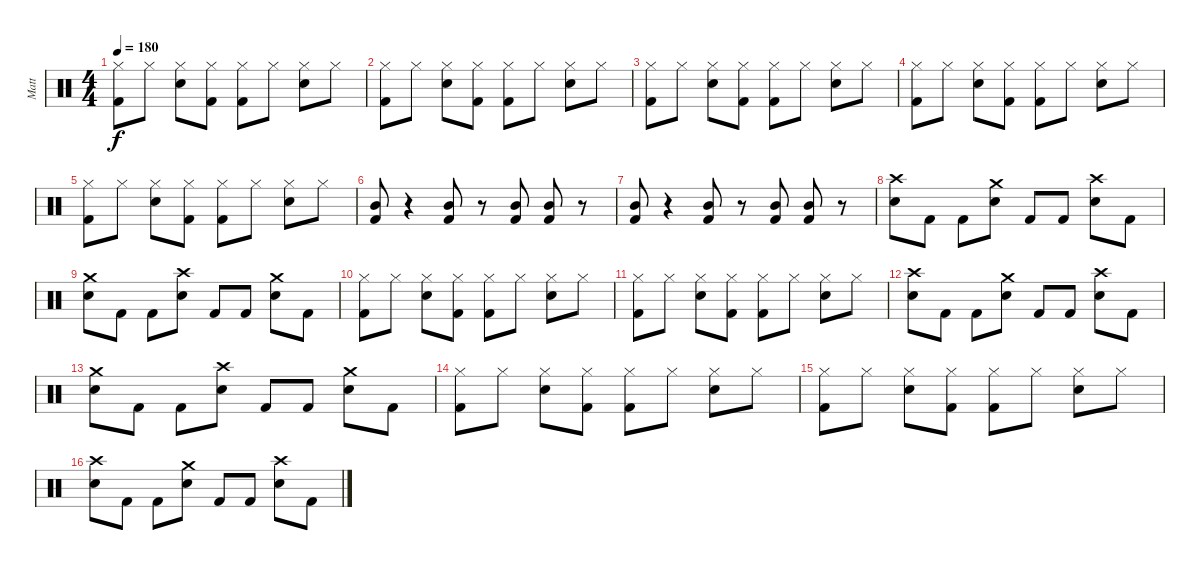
\track ("Matt" "Matt") {instrument percussion}
\staff {score}
\articulation defaults
\ts (4 4)
\tempo 180
\clef neutral
\ks c
("Hi-Hat (closed)" "Kick (hit) 2").8{dy f} "Hi-Hat (closed)".8 ("Hi-Hat (closed)" "Snare (hit) 2").8 ("Hi-Hat (closed)" "Kick (hit) 2").8 ("Hi-Hat (closed)" "Kick (hit) 2").8 "Hi-Hat (closed)".8 ("Hi-Hat (closed)" "Snare (hit) 2").8 "Hi-Hat (closed)".8 |
("Hi-Hat (closed)" "Kick (hit) 2").8 "Hi-Hat (closed)".8 ("Hi-Hat (closed)" "Snare (hit) 2").8 ("Hi-Hat (closed)" "Kick (hit) 2").8 ("Hi-Hat (closed)" "Kick (hit) 2").8 "Hi-Hat (closed)".8 ("Hi-Hat (closed)" "Snare (hit) 2").8 "Hi-Hat (closed)".8 |
("Hi-Hat (closed)" "Kick (hit) 2").8 "Hi-Hat (closed)".8 ("Hi-Hat (closed)" "Snare (hit) 2").8 ("Hi-Hat (closed)" "Kick (hit) 2").8 ("Hi-Hat (closed)" "Kick (hit) 2").8 "Hi-Hat (closed)".8 ("Hi-Hat (closed)" "Snare (hit) 2").8 "Hi-Hat (closed)".8 |
("Hi-Hat (closed)" "Kick (hit) 2").8 "Hi-Hat (closed)".8 ("Hi-Hat (closed)" "Snare (hit) 2").8 ("Hi-Hat (closed)" "Kick (hit) 2").8 ("Hi-Hat (closed)" "Kick (hit) 2").8 "Hi-Hat (closed)".8 ("Hi-Hat (closed)" "Snare (hit) 2").8 "Hi-Hat (closed)".8 |
("Hi-Hat (closed)" "Kick (hit) 2").8 "Hi-Hat (closed)".8 ("Hi-Hat (closed)" "Snare (hit) 2").8 ("Hi-Hat (closed)" "Kick (hit) 2").8 ("Hi-Hat (closed)" "Kick (hit) 2").8 "Hi-Hat (closed)".8 ("Hi-Hat (closed)" "Snare (hit) 2").8 "Hi-Hat (closed)".8 |
("Mid Tom (hit)" "Kick (hit) 2").8 r.4 ("Mid Tom (hit)" "Kick (hit) 2").8 r.8 ("Mid Tom (hit)" "Kick (hit) 2").8 ("Mid Tom (hit)" "Kick (hit) 2").8 r.8 |
("Mid Tom (hit)" "Kick (hit) 2").8 r.4 ("Mid Tom (hit)" "Kick (hit) 2").8 r.8 ("Mid Tom (hit)" "Kick (hit) 2").8 ("Mid Tom (hit)" "Kick (hit) 2").8 r.8 |
("Crash high (hit)" "Snare (hit) 2").8 "Kick (hit) 2".8 "Kick (hit) 2".8 ("Crash medium (hit)" "Snare (hit) 2").8 "Kick (hit) 2".8 "Kick (hit) 2".8 ("Crash high (hit)" "Snare (hit) 2").8 "Kick (hit) 2".8 |
("Crash medium (hit)" "Snare (hit) 2").8 "Kick (hit) 2".8 "Kick (hit) 2".8 ("Crash high (hit)" "Snare (hit) 2").8 "Kick (hit) 2".8 "Kick (hit) 2".8 ("Crash medium (hit)" "Snare (hit) 2").8 "Kick (hit) 2".8 |
("Hi-Hat (closed)" "Kick (hit) 2").8 "Hi-Hat (closed)".8 ("Hi-Hat (closed)" "Snare (hit) 2").8 ("Hi-Hat (closed)" "Kick (hit) 2").8 ("Hi-Hat (closed)" "Kick (hit) 2").8 "Hi-Hat (closed)".8 ("Hi-Hat (closed)" "Snare (hit) 2").8 "Hi-Hat (closed)".8 |
("Hi-Hat (closed)" "Kick (hit) 2").8 "Hi-Hat (closed)".8 ("Hi-Hat (closed)" "Snare (hit) 2").8 ("Hi-Hat (closed)" "Kick (hit) 2").8 ("Hi-Hat (closed)" "Kick (hit) 2").8 "Hi-Hat (closed)".8 ("Hi-Hat (closed)" "Snare (hit) 2").8 "Hi-Hat (closed)".8 |
("Crash high (hit)" "Snare (hit) 2").8 "Kick (hit) 2".8 "Kick (hit) 2".8 ("Crash medium (hit)" "Snare (hit) 2").8 "Kick (hit) 2".8 "Kick (hit) 2".8 ("Crash high (hit)" "Snare (hit) 2").8 "Kick (hit) 2".8 |
("Crash medium (hit)" "Snare (hit) 2").8 "Kick (hit) 2".8 "Kick (hit) 2".8 ("Crash high (hit)" "Snare (hit) 2").8 "Kick (hit) 2".8 "Kick (hit) 2".8 ("Crash medium (hit)" "Snare (hit) 2").8 "Kick (hit) 2".8 |
("Hi-Hat (closed)" "Kick (hit) 2").8 "Hi-Hat (closed)".8 ("Hi-Hat (closed)" "Snare (hit) 2").8 ("Hi-Hat (closed)" "Kick (hit) 2").8 ("Hi-Hat (closed)" "Kick (hit) 2").8 "Hi-Hat (closed)".8 ("Hi-Hat (closed)" "Snare (hit) 2").8 "Hi-Hat (closed)".8 |
("Hi-Hat (closed)" "Kick (hit) 2").8 "Hi-Hat (closed)".8 ("Hi-Hat (closed)" "Snare (hit) 2").8 ("Hi-Hat (closed)" "Kick (hit) 2").8 ("Hi-Hat (closed)" "Kick (hit) 2").8 "Hi-Hat (closed)".8 ("Hi-Hat (closed)" "Snare (hit) 2").8 "Hi-Hat (closed)".8 |
("Crash high (hit)" "Snare (hit) 2").8 "Kick (hit) 2".8 "Kick (hit) 2".8 ("Crash medium (hit)" "Snare (hit) 2").8 "Kick (hit) 2".8 "Kick (hit) 2".8 ("Crash high (hit)" "Snare (hit) 2").8 "Kick (hit) 2".8
